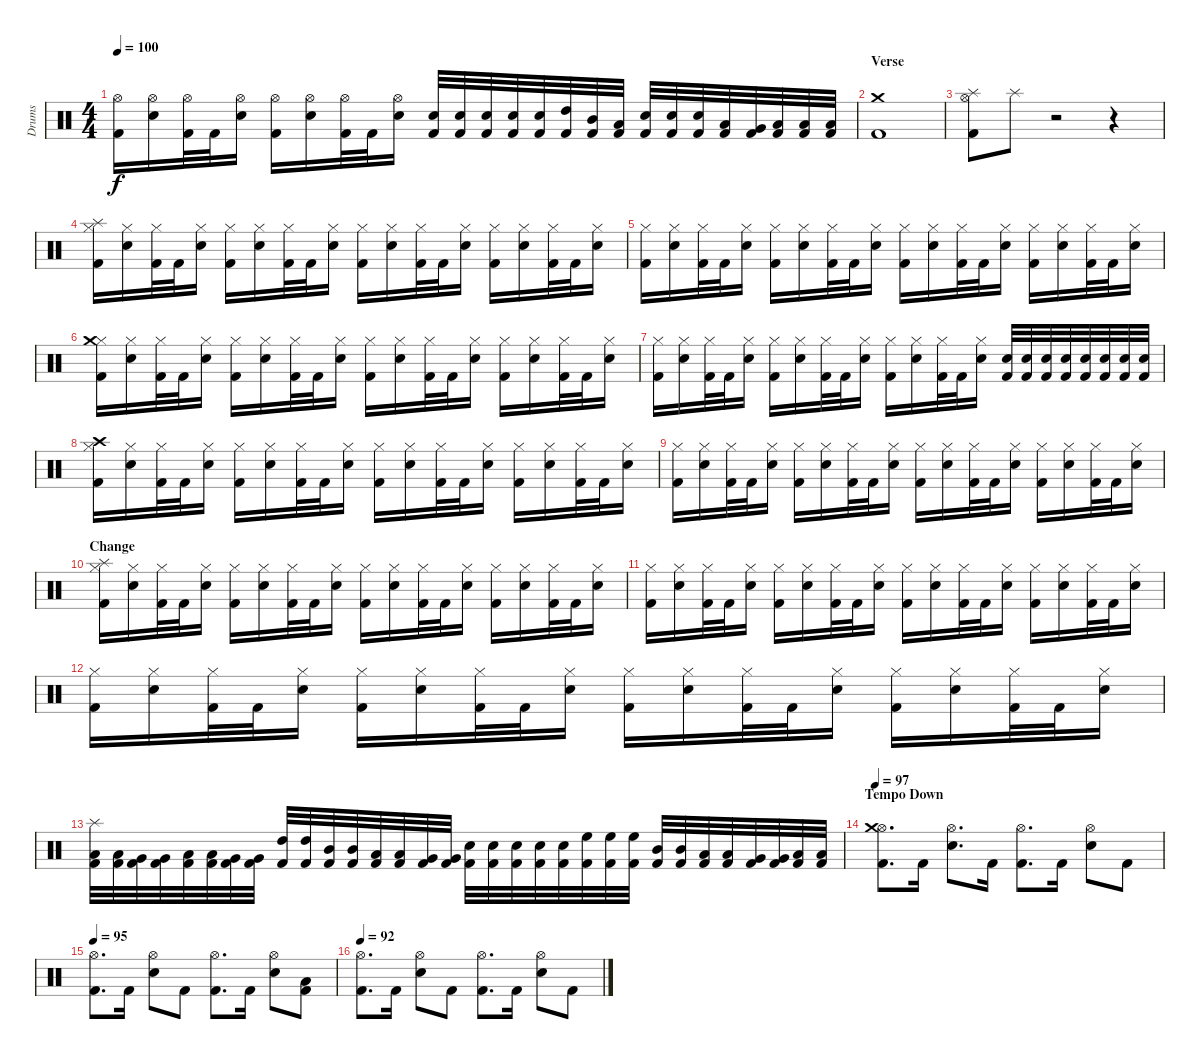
\track ("Drums" "Drums") {instrument percussion}
\staff {score}
\articulation defaults
\ts (4 4)
\tempo 100
\clef neutral
\ks c
("Kick (hit) 2" "Hi-Hat (open)").16{dy f} ("Electric Snare (hit)" "Hi-Hat (open)").16 ("Kick (hit) 2" "Hi-Hat (open)").32 "Kick (hit) 2".32 ("Electric Snare (hit)" "Hi-Hat (open)").16 ("Kick (hit) 2" "Hi-Hat (open)").16 ("Electric Snare (hit)" "Hi-Hat (open)").16 ("Kick (hit) 2" "Hi-Hat (open)").32 "Kick (hit) 2".32 ("Electric Snare (hit)" "Hi-Hat (open)").16 ("Kick (hit) 2" "Electric Snare (hit)").32 ("Kick (hit) 2" "Electric Snare (hit)").32 ("Kick (hit) 2" "Electric Snare (hit)").32 ("Kick (hit) 2" "Electric Snare (hit)").32 ("Kick (hit) 2" "Electric Snare (hit)").32 ("Kick (hit) 2" "High Tom (hit)").32 ("Kick (hit) 2" "Mid Tom (hit)").32 ("Kick (hit) 2" "Low Tom (hit)").32 ("Kick (hit) 2" "Electric Snare (hit)").32 ("Kick (hit) 2" "Electric Snare (hit)").32 ("Kick (hit) 2" "Electric Snare (hit)").32 ("Kick (hit) 2" "Low Tom (hit)").32 ("Kick (hit) 2" "Very Low Tom (hit)").32 ("Kick (hit) 2" "Low Floor Tom (hit)").32 ("Kick (hit) 2" "Low Floor Tom (hit)").32 ("Kick (hit) 2" "Low Floor Tom (hit)").32 |
\section ("" "Verse")
("Kick (hit) 2" "Crash medium (hit)").1 |
("Kick (hit) 2" "Hi-Hat (open)" "Splash (hit)").8 "Splash (hit)".8{volume 0} r.2 r.4 |
("Kick (hit) 2" "Hi-Hat (closed)" "Splash (hit)").16{volume 14} ("Electric Snare (hit)" "Hi-Hat (closed)").16 ("Kick (hit) 2" "Hi-Hat (closed)").32 "Kick (hit) 2".32 ("Electric Snare (hit)" "Hi-Hat (closed)").16 ("Kick (hit) 2" "Hi-Hat (closed)").16 ("Electric Snare (hit)" "Hi-Hat (closed)").16 ("Kick (hit) 2" "Hi-Hat (closed)").32 "Kick (hit) 2".32 ("Electric Snare (hit)" "Hi-Hat (closed)").16 ("Kick (hit) 2" "Hi-Hat (closed)").16 ("Electric Snare (hit)" "Hi-Hat (closed)").16 ("Kick (hit) 2" "Hi-Hat (closed)").32 "Kick (hit) 2".32 ("Electric Snare (hit)" "Hi-Hat (closed)").16 ("Kick (hit) 2" "Hi-Hat (closed)").16 ("Electric Snare (hit)" "Hi-Hat (closed)").16 ("Kick (hit) 2" "Hi-Hat (closed)").32 "Kick (hit) 2".32 ("Electric Snare (hit)" "Hi-Hat (closed)").16 |
("Kick (hit) 2" "Hi-Hat (closed)").16 ("Electric Snare (hit)" "Hi-Hat (closed)").16 ("Kick (hit) 2" "Hi-Hat (closed)").32 "Kick (hit) 2".32 ("Electric Snare (hit)" "Hi-Hat (closed)").16 ("Kick (hit) 2" "Hi-Hat (closed)").16 ("Electric Snare (hit)" "Hi-Hat (closed)").16 ("Kick (hit) 2" "Hi-Hat (closed)").32 "Kick (hit) 2".32 ("Electric Snare (hit)" "Hi-Hat (closed)").16 ("Kick (hit) 2" "Hi-Hat (closed)").16 ("Electric Snare (hit)" "Hi-Hat (closed)").16 ("Kick (hit) 2" "Hi-Hat (closed)").32 "Kick (hit) 2".32 ("Electric Snare (hit)" "Hi-Hat (closed)").16 ("Kick (hit) 2" "Hi-Hat (closed)").16 ("Electric Snare (hit)" "Hi-Hat (closed)").16 ("Kick (hit) 2" "Hi-Hat (closed)").32 "Kick (hit) 2".32 ("Electric Snare (hit)" "Hi-Hat (closed)").16 |
("Kick (hit) 2" "Hi-Hat (closed)" "Crash medium (hit)").16 ("Electric Snare (hit)" "Hi-Hat (closed)").16 ("Kick (hit) 2" "Hi-Hat (closed)").32 "Kick (hit) 2".32 ("Electric Snare (hit)" "Hi-Hat (closed)").16 ("Kick (hit) 2" "Hi-Hat (closed)").16 ("Electric Snare (hit)" "Hi-Hat (closed)").16 ("Kick (hit) 2" "Hi-Hat (closed)").32 "Kick (hit) 2".32 ("Electric Snare (hit)" "Hi-Hat (closed)").16 ("Kick (hit) 2" "Hi-Hat (closed)").16 ("Electric Snare (hit)" "Hi-Hat (closed)").16 ("Kick (hit) 2" "Hi-Hat (closed)").32 "Kick (hit) 2".32 ("Electric Snare (hit)" "Hi-Hat (closed)").16 ("Kick (hit) 2" "Hi-Hat (closed)").16 ("Electric Snare (hit)" "Hi-Hat (closed)").16 ("Kick (hit) 2" "Hi-Hat (closed)").32 "Kick (hit) 2".32 ("Electric Snare (hit)" "Hi-Hat (closed)").16 |
("Kick (hit) 2" "Hi-Hat (closed)").16 ("Electric Snare (hit)" "Hi-Hat (closed)").16 ("Kick (hit) 2" "Hi-Hat (closed)").32 "Kick (hit) 2".32 ("Electric Snare (hit)" "Hi-Hat (closed)").16 ("Kick (hit) 2" "Hi-Hat (closed)").16 ("Electric Snare (hit)" "Hi-Hat (closed)").16 ("Kick (hit) 2" "Hi-Hat (closed)").32 "Kick (hit) 2".32 ("Electric Snare (hit)" "Hi-Hat (closed)").16 ("Kick (hit) 2" "Hi-Hat (closed)").16 ("Electric Snare (hit)" "Hi-Hat (closed)").16 ("Kick (hit) 2" "Hi-Hat (closed)").32 "Kick (hit) 2".32 ("Electric Snare (hit)" "Hi-Hat (closed)").16 ("Kick (hit) 2" "Electric Snare (hit)").32 ("Kick (hit) 2" "Electric Snare (hit)").32 ("Kick (hit) 2" "Electric Snare (hit)").32 ("Kick (hit) 2" "Electric Snare (hit)").32 ("Kick (hit) 2" "Electric Snare (hit)").32 ("Kick (hit) 2" "Electric Snare (hit)").32 ("Kick (hit) 2" "Electric Snare (hit)").32 ("Kick (hit) 2" "Electric Snare (hit)").32 |
("Kick (hit) 2" "Hi-Hat (closed)" "Crash high (hit)").16 ("Electric Snare (hit)" "Hi-Hat (closed)").16 ("Kick (hit) 2" "Hi-Hat (closed)").32 "Kick (hit) 2".32 ("Electric Snare (hit)" "Hi-Hat (closed)").16 ("Kick (hit) 2" "Hi-Hat (closed)").16 ("Electric Snare (hit)" "Hi-Hat (closed)").16 ("Kick (hit) 2" "Hi-Hat (closed)").32 "Kick (hit) 2".32 ("Electric Snare (hit)" "Hi-Hat (closed)").16 ("Kick (hit) 2" "Hi-Hat (closed)").16 ("Electric Snare (hit)" "Hi-Hat (closed)").16 ("Kick (hit) 2" "Hi-Hat (closed)").32 "Kick (hit) 2".32 ("Electric Snare (hit)" "Hi-Hat (closed)").16 ("Kick (hit) 2" "Hi-Hat (closed)").16 ("Electric Snare (hit)" "Hi-Hat (closed)").16 ("Kick (hit) 2" "Hi-Hat (closed)").32 "Kick (hit) 2".32 ("Electric Snare (hit)" "Hi-Hat (closed)").16 |
("Kick (hit) 2" "Hi-Hat (closed)").16 ("Electric Snare (hit)" "Hi-Hat (closed)").16 ("Kick (hit) 2" "Hi-Hat (closed)").32 "Kick (hit) 2".32 ("Electric Snare (hit)" "Hi-Hat (closed)").16 ("Kick (hit) 2" "Hi-Hat (closed)").16 ("Electric Snare (hit)" "Hi-Hat (closed)").16 ("Kick (hit) 2" "Hi-Hat (closed)").32 "Kick (hit) 2".32 ("Electric Snare (hit)" "Hi-Hat (closed)").16 ("Kick (hit) 2" "Hi-Hat (closed)").16 ("Electric Snare (hit)" "Hi-Hat (closed)").16 ("Kick (hit) 2" "Hi-Hat (closed)").32 "Kick (hit) 2".32 ("Electric Snare (hit)" "Hi-Hat (closed)").16 ("Kick (hit) 2" "Hi-Hat (closed)").16 ("Electric Snare (hit)" "Hi-Hat (closed)").16 ("Kick (hit) 2" "Hi-Hat (closed)").32 "Kick (hit) 2".32 ("Electric Snare (hit)" "Hi-Hat (closed)").16 |
\section ("" "Change")
("Kick (hit) 2" "Hi-Hat (closed)" "Splash (hit)").16 ("Electric Snare (hit)" "Hi-Hat (closed)").16 ("Kick (hit) 2" "Hi-Hat (closed)").32 "Kick (hit) 2".32 ("Electric Snare (hit)" "Hi-Hat (closed)").16 ("Kick (hit) 2" "Hi-Hat (closed)").16 ("Electric Snare (hit)" "Hi-Hat (closed)").16 ("Kick (hit) 2" "Hi-Hat (closed)").32 "Kick (hit) 2".32 ("Electric Snare (hit)" "Hi-Hat (closed)").16 ("Kick (hit) 2" "Hi-Hat (closed)").16 ("Electric Snare (hit)" "Hi-Hat (closed)").16 ("Kick (hit) 2" "Hi-Hat (closed)").32 "Kick (hit) 2".32 ("Electric Snare (hit)" "Hi-Hat (closed)").16 ("Kick (hit) 2" "Hi-Hat (closed)").16 ("Electric Snare (hit)" "Hi-Hat (closed)").16 ("Kick (hit) 2" "Hi-Hat (closed)").32 "Kick (hit) 2".32 ("Electric Snare (hit)" "Hi-Hat (closed)").16 |
("Kick (hit) 2" "Hi-Hat (closed)").16 ("Electric Snare (hit)" "Hi-Hat (closed)").16 ("Kick (hit) 2" "Hi-Hat (closed)").32 "Kick (hit) 2".32 ("Electric Snare (hit)" "Hi-Hat (closed)").16 ("Kick (hit) 2" "Hi-Hat (closed)").16 ("Electric Snare (hit)" "Hi-Hat (closed)").16 ("Kick (hit) 2" "Hi-Hat (closed)").32 "Kick (hit) 2".32 ("Electric Snare (hit)" "Hi-Hat (closed)").16 ("Kick (hit) 2" "Hi-Hat (closed)").16 ("Electric Snare (hit)" "Hi-Hat (closed)").16 ("Kick (hit) 2" "Hi-Hat (closed)").32 "Kick (hit) 2".32 ("Electric Snare (hit)" "Hi-Hat (closed)").16 ("Kick (hit) 2" "Hi-Hat (closed)").16 ("Electric Snare (hit)" "Hi-Hat (closed)").16 ("Kick (hit) 2" "Hi-Hat (closed)").32 "Kick (hit) 2".32 ("Electric Snare (hit)" "Hi-Hat (closed)").16 |
("Kick (hit) 2" "Hi-Hat (closed)").16 ("Electric Snare (hit)" "Hi-Hat (closed)").16 ("Kick (hit) 2" "Hi-Hat (closed)").32 "Kick (hit) 2".32 ("Electric Snare (hit)" "Hi-Hat (closed)").16 ("Kick (hit) 2" "Hi-Hat (closed)").16 ("Electric Snare (hit)" "Hi-Hat (closed)").16 ("Kick (hit) 2" "Hi-Hat (closed)").32 "Kick (hit) 2".32 ("Electric Snare (hit)" "Hi-Hat (closed)").16 ("Kick (hit) 2" "Hi-Hat (closed)").16 ("Electric Snare (hit)" "Hi-Hat (closed)").16 ("Kick (hit) 2" "Hi-Hat (closed)").32 "Kick (hit) 2".32 ("Electric Snare (hit)" "Hi-Hat (closed)").16 ("Kick (hit) 2" "Hi-Hat (closed)").16 ("Electric Snare (hit)" "Hi-Hat (closed)").16 ("Kick (hit) 2" "Hi-Hat (closed)").32 "Kick (hit) 2".32 ("Electric Snare (hit)" "Hi-Hat (closed)").16 |
("Kick (hit) 2" "Low Tom (hit)" "Splash (hit)").32 ("Kick (hit) 2" "Low Tom (hit)").32 ("Kick (hit) 2" "Very Low Tom (hit)").32 ("Kick (hit) 2" "Very Low Tom (hit)").32 ("Kick (hit) 2" "Low Floor Tom (hit)").32 ("Kick (hit) 2" "Low Floor Tom (hit)").32 ("Kick (hit) 2" "Very Low Tom (hit)").32 ("Kick (hit) 2" "Very Low Tom (hit)").32 ("Kick (hit) 2" "High Tom (hit)").32 ("Kick (hit) 2" "High Tom (hit)").32 ("Kick (hit) 2" "Mid Tom (hit)").32 ("Kick (hit) 2" "Mid Tom (hit)").32 ("Kick (hit) 2" "Low Tom (hit)").32 ("Kick (hit) 2" "Low Tom (hit)").32 ("Kick (hit) 2" "Very Low Tom (hit)").32 ("Kick (hit) 2" "Very Low Tom (hit)").32 ("Kick (hit) 2" "Electric Snare (hit)").32 ("Kick (hit) 2" "Electric Snare (hit)").32 ("Kick (hit) 2" "Electric Snare (hit)").32 ("Kick (hit) 2" "Electric Snare (hit)").32 ("Kick (hit) 2" "Electric Snare (hit)").32 ("Kick (hit) 2" "High Floor Tom (hit)").32 ("Kick (hit) 2" "High Floor Tom (hit)").32 ("Kick (hit) 2" "High Floor Tom (hit)").32 ("Kick (hit) 2" "Mid Tom (hit)").32 ("Kick (hit) 2" "Mid Tom (hit)").32 ("Kick (hit) 2" "Low Tom (hit)").32 ("Kick (hit) 2" "Low Tom (hit)").32 ("Kick (hit) 2" "Very Low Tom (hit)").32 ("Kick (hit) 2" "Very Low Tom (hit)").32 ("Kick (hit) 2" "Low Floor Tom (hit)").32 ("Kick (hit) 2" "Low Floor Tom (hit)").32 |
\section ("" "Tempo Down")
\tempo 97
("Kick (hit) 2" "Hi-Hat (open)" "Crash medium (hit)").8{d} "Kick (hit) 2".16 ("Electric Snare (hit)" "Hi-Hat (open)").8{d} "Kick (hit) 2".16 ("Kick (hit) 2" "Hi-Hat (open)").8{d} "Kick (hit) 2".16 ("Electric Snare (hit)" "Hi-Hat (open)").8 "Kick (hit) 2".8 |
\tempo 95
("Kick (hit) 2" "Hi-Hat (open)").8{d} "Kick (hit) 2".16 ("Electric Snare (hit)" "Hi-Hat (open)").8 "Kick (hit) 2".8 ("Kick (hit) 2" "Hi-Hat (open)").8{d} "Kick (hit) 2".16 ("Electric Snare (hit)" "Hi-Hat (open)").8 ("Kick (hit) 2" "Low Tom (hit)").8 |
\tempo 92
("Kick (hit) 2" "Hi-Hat (open)").8{d} "Kick (hit) 2".16 ("Electric Snare (hit)" "Hi-Hat (open)").8 "Kick (hit) 2".8 ("Kick (hit) 2" "Hi-Hat (open)").8{d} "Kick (hit) 2".16 ("Electric Snare (hit)" "Hi-Hat (open)").8 "Kick (hit) 2".8
